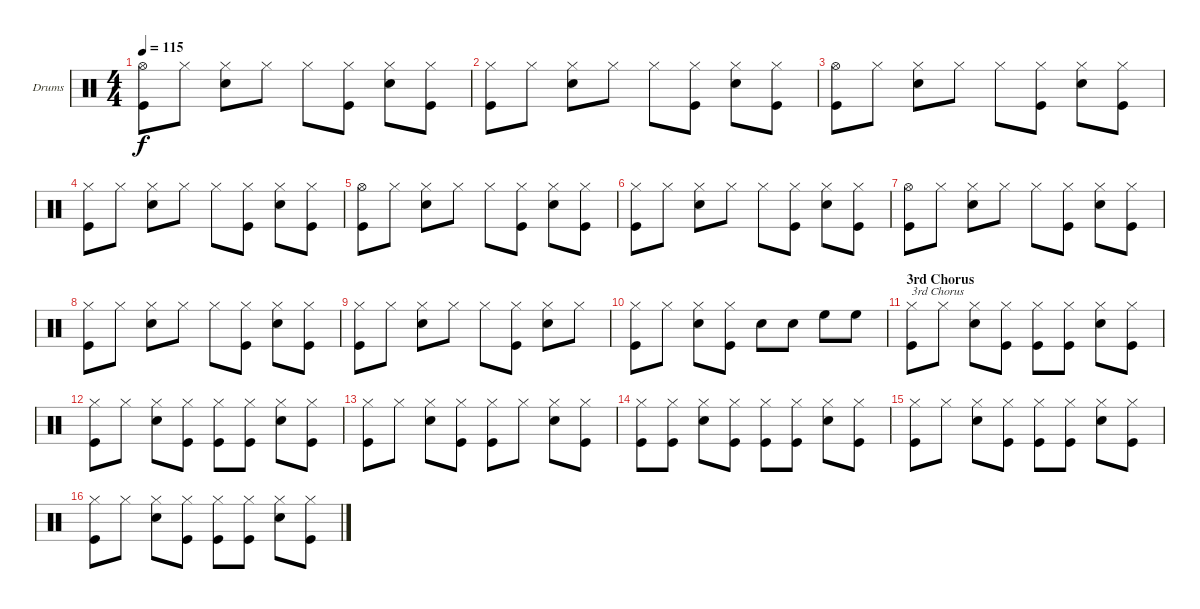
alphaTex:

\bracketExtendMode groupsimilarinstruments
\firstSystemTrackNameOrientation horizontal
\otherSystemsTrackNameOrientation horizontal
\track ("Drumkit" "Drums") {instrument percussion}
\staff {score}
\articulation defaults
\ts (4 4)
\tempo 115
\clef neutral
\ks c
("Hi-Hat (open)" "Kick (hit)").8{dy f} "Hi-Hat (closed)".8 ("Hi-Hat (closed)" "Snare (hit) 2").8 "Hi-Hat (closed)".8 "Hi-Hat (closed)".8 ("Hi-Hat (closed)" "Kick (hit)").8 ("Hi-Hat (closed)" "Snare (hit) 2").8 ("Hi-Hat (closed)" "Kick (hit)").8 |
("Hi-Hat (closed)" "Kick (hit)").8 "Hi-Hat (closed)".8 ("Hi-Hat (closed)" "Snare (hit) 2").8 "Hi-Hat (closed)".8 "Hi-Hat (closed)".8 ("Hi-Hat (closed)" "Kick (hit)").8 ("Hi-Hat (closed)" "Snare (hit) 2").8 ("Hi-Hat (closed)" "Kick (hit)").8 |
("Hi-Hat (open)" "Kick (hit)").8 "Hi-Hat (closed)".8 ("Hi-Hat (closed)" "Snare (hit) 2").8 "Hi-Hat (closed)".8 "Hi-Hat (closed)".8 ("Hi-Hat (closed)" "Kick (hit)").8 ("Hi-Hat (closed)" "Snare (hit) 2").8 ("Hi-Hat (closed)" "Kick (hit)").8 |
("Hi-Hat (closed)" "Kick (hit)").8 "Hi-Hat (closed)".8 ("Hi-Hat (closed)" "Snare (hit) 2").8 "Hi-Hat (closed)".8 "Hi-Hat (closed)".8 ("Hi-Hat (closed)" "Kick (hit)").8 ("Hi-Hat (closed)" "Snare (hit) 2").8 ("Hi-Hat (closed)" "Kick (hit)").8 |
("Hi-Hat (open)" "Kick (hit)").8 "Hi-Hat (closed)".8 ("Hi-Hat (closed)" "Snare (hit) 2").8 "Hi-Hat (closed)".8 "Hi-Hat (closed)".8 ("Hi-Hat (closed)" "Kick (hit)").8 ("Hi-Hat (closed)" "Snare (hit) 2").8 ("Hi-Hat (closed)" "Kick (hit)").8 |
("Hi-Hat (closed)" "Kick (hit)").8 "Hi-Hat (closed)".8 ("Hi-Hat (closed)" "Snare (hit) 2").8 "Hi-Hat (closed)".8 "Hi-Hat (closed)".8 ("Hi-Hat (closed)" "Kick (hit)").8 ("Hi-Hat (closed)" "Snare (hit) 2").8 ("Hi-Hat (closed)" "Kick (hit)").8 |
("Hi-Hat (open)" "Kick (hit)").8 "Hi-Hat (closed)".8 ("Hi-Hat (closed)" "Snare (hit) 2").8 "Hi-Hat (closed)".8 "Hi-Hat (closed)".8 ("Hi-Hat (closed)" "Kick (hit)").8 ("Hi-Hat (closed)" "Snare (hit) 2").8 ("Hi-Hat (closed)" "Kick (hit)").8 |
("Hi-Hat (closed)" "Kick (hit)").8 "Hi-Hat (closed)".8 ("Hi-Hat (closed)" "Snare (hit) 2").8 "Hi-Hat (closed)".8 "Hi-Hat (closed)".8 ("Hi-Hat (closed)" "Kick (hit)").8 ("Hi-Hat (closed)" "Snare (hit) 2").8 ("Hi-Hat (closed)" "Kick (hit)").8 |
("Hi-Hat (closed)" "Kick (hit)").8 "Hi-Hat (closed)".8 ("Hi-Hat (closed)" "Snare (hit) 2").8 "Hi-Hat (closed)".8 "Hi-Hat (closed)".8 ("Hi-Hat (closed)" "Kick (hit)").8 ("Hi-Hat (closed)" "Snare (hit) 2").8 "Hi-Hat (closed)".8 |
("Hi-Hat (closed)" "Kick (hit)").8 "Hi-Hat (closed)".8 ("Hi-Hat (closed)" "Snare (hit) 2").8 ("Hi-Hat (closed)" "Kick (hit)").8 "Snare (hit) 2".8 "Snare (hit) 2".8 "High Floor Tom (hit)".8 "High Floor Tom (hit)".8 |
\section ("" "3rd Chorus")
("Hi-Hat (closed)" "Kick (hit)").8{txt "3rd Chorus"} "Hi-Hat (closed)".8 ("Hi-Hat (closed)" "Snare (hit) 2").8 ("Hi-Hat (closed)" "Kick (hit)").8 ("Hi-Hat (closed)" "Kick (hit)").8 ("Hi-Hat (closed)" "Kick (hit)").8 ("Hi-Hat (closed)" "Snare (hit) 2").8 ("Hi-Hat (closed)" "Kick (hit)").8 |
("Hi-Hat (closed)" "Kick (hit)").8 "Hi-Hat (closed)".8 ("Hi-Hat (closed)" "Snare (hit) 2").8 ("Hi-Hat (closed)" "Kick (hit)").8 ("Hi-Hat (closed)" "Kick (hit)").8 ("Hi-Hat (closed)" "Kick (hit)").8 ("Hi-Hat (closed)" "Snare (hit) 2").8 ("Hi-Hat (closed)" "Kick (hit)").8 |
("Hi-Hat (closed)" "Kick (hit)").8 "Hi-Hat (closed)".8 ("Hi-Hat (closed)" "Snare (hit) 2").8 ("Hi-Hat (closed)" "Kick (hit)").8 ("Hi-Hat (closed)" "Kick (hit)").8 "Hi-Hat (closed)".8 ("Hi-Hat (closed)" "Snare (hit) 2").8 ("Hi-Hat (closed)" "Kick (hit)").8 |
("Hi-Hat (closed)" "Kick (hit)").8 ("Hi-Hat (closed)" "Kick (hit)").8 ("Hi-Hat (closed)" "Snare (hit) 2").8 ("Hi-Hat (closed)" "Kick (hit)").8 ("Hi-Hat (closed)" "Kick (hit)").8 ("Hi-Hat (closed)" "Kick (hit)").8 ("Hi-Hat (closed)" "Snare (hit) 2").8 ("Hi-Hat (closed)" "Kick (hit)").8 |
("Hi-Hat (closed)" "Kick (hit)").8 "Hi-Hat (closed)".8 ("Hi-Hat (closed)" "Snare (hit) 2").8 ("Hi-Hat (closed)" "Kick (hit)").8 ("Hi-Hat (closed)" "Kick (hit)").8 ("Hi-Hat (closed)" "Kick (hit)").8 ("Hi-Hat (closed)" "Snare (hit) 2").8 ("Hi-Hat (closed)" "Kick (hit)").8 |
("Hi-Hat (closed)" "Kick (hit)").8 "Hi-Hat (closed)".8 ("Hi-Hat (closed)" "Snare (hit) 2").8 ("Hi-Hat (closed)" "Kick (hit)").8 ("Hi-Hat (closed)" "Kick (hit)").8 ("Hi-Hat (closed)" "Kick (hit)").8 ("Hi-Hat (closed)" "Snare (hit) 2").8 ("Hi-Hat (closed)" "Kick (hit)").8
